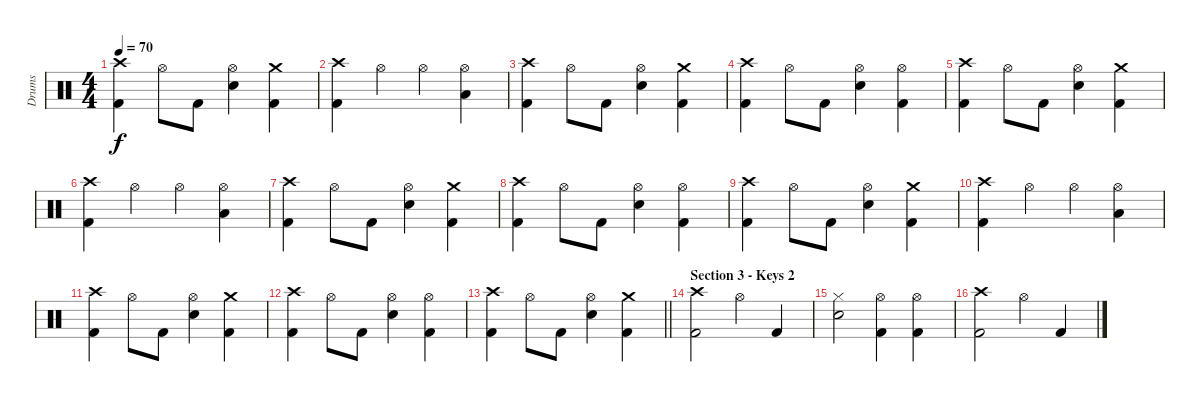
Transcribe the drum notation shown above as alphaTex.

\track ("Drums" "Drums") {instrument percussion}
\staff {score}
\articulation defaults
\ts (4 4)
\tempo 70
\clef neutral
\ks c
("Crash high (hit)" "Kick (hit) 2").4{dy f} "Hi-Hat (open)".8 "Kick (hit) 2".8 ("Hi-Hat (open)" "Electric Snare (hit)").4 ("Crash medium (hit)" "Kick (hit) 2").4 |
("Crash high (hit)" "Kick (hit) 2").4 "Hi-Hat (open)".4 "Hi-Hat (open)".4 ("Hi-Hat (open)" "Low Floor Tom (hit)").4 |
("Crash high (hit)" "Kick (hit) 2").4 "Hi-Hat (open)".8 "Kick (hit) 2".8 ("Hi-Hat (open)" "Electric Snare (hit)").4 ("Crash medium (hit)" "Kick (hit) 2").4 |
("Crash high (hit)" "Kick (hit) 2").4 "Hi-Hat (open)".8 "Kick (hit) 2".8 ("Hi-Hat (open)" "Electric Snare (hit)").4 ("Hi-Hat (open)" "Kick (hit) 2").4 |
("Crash high (hit)" "Kick (hit) 2").4 "Hi-Hat (open)".8 "Kick (hit) 2".8 ("Hi-Hat (open)" "Electric Snare (hit)").4 ("Crash medium (hit)" "Kick (hit) 2").4 |
("Crash high (hit)" "Kick (hit) 2").4 "Hi-Hat (open)".4 "Hi-Hat (open)".4 ("Hi-Hat (open)" "Low Floor Tom (hit)").4 |
("Crash high (hit)" "Kick (hit) 2").4 "Hi-Hat (open)".8 "Kick (hit) 2".8 ("Hi-Hat (open)" "Electric Snare (hit)").4 ("Crash medium (hit)" "Kick (hit) 2").4 |
("Crash high (hit)" "Kick (hit) 2").4 "Hi-Hat (open)".8 "Kick (hit) 2".8 ("Hi-Hat (open)" "Electric Snare (hit)").4 ("Hi-Hat (open)" "Kick (hit) 2").4 |
("Crash high (hit)" "Kick (hit) 2").4 "Hi-Hat (open)".8 "Kick (hit) 2".8 ("Hi-Hat (open)" "Electric Snare (hit)").4 ("Crash medium (hit)" "Kick (hit) 2").4 |
("Crash high (hit)" "Kick (hit) 2").4 "Hi-Hat (open)".4 "Hi-Hat (open)".4 ("Hi-Hat (open)" "Low Floor Tom (hit)").4 |
("Crash high (hit)" "Kick (hit) 2").4 "Hi-Hat (open)".8 "Kick (hit) 2".8 ("Hi-Hat (open)" "Electric Snare (hit)").4 ("Crash medium (hit)" "Kick (hit) 2").4 |
("Crash high (hit)" "Kick (hit) 2").4 "Hi-Hat (open)".8 "Kick (hit) 2".8 ("Hi-Hat (open)" "Electric Snare (hit)").4 ("Hi-Hat (open)" "Kick (hit) 2").4 |
\barLineRight lightlight
("Crash high (hit)" "Kick (hit) 2").4 "Hi-Hat (open)".8 "Kick (hit) 2".8 ("Hi-Hat (open)" "Electric Snare (hit)").4 ("Crash medium (hit)" "Kick (hit) 2").4 |
\section ("" "Section 3 - Keys 2")
("Crash high (hit)" "Kick (hit) 2").2 "Hi-Hat (open)".4 "Kick (hit) 2".4 |
("Hi-Hat (closed)" "Electric Snare (hit)").2 ("Hi-Hat (open)" "Kick (hit) 2").4 ("Hi-Hat (open)" "Kick (hit) 2").4 |
("Crash high (hit)" "Kick (hit) 2").2 "Hi-Hat (open)".4 "Kick (hit) 2".4
